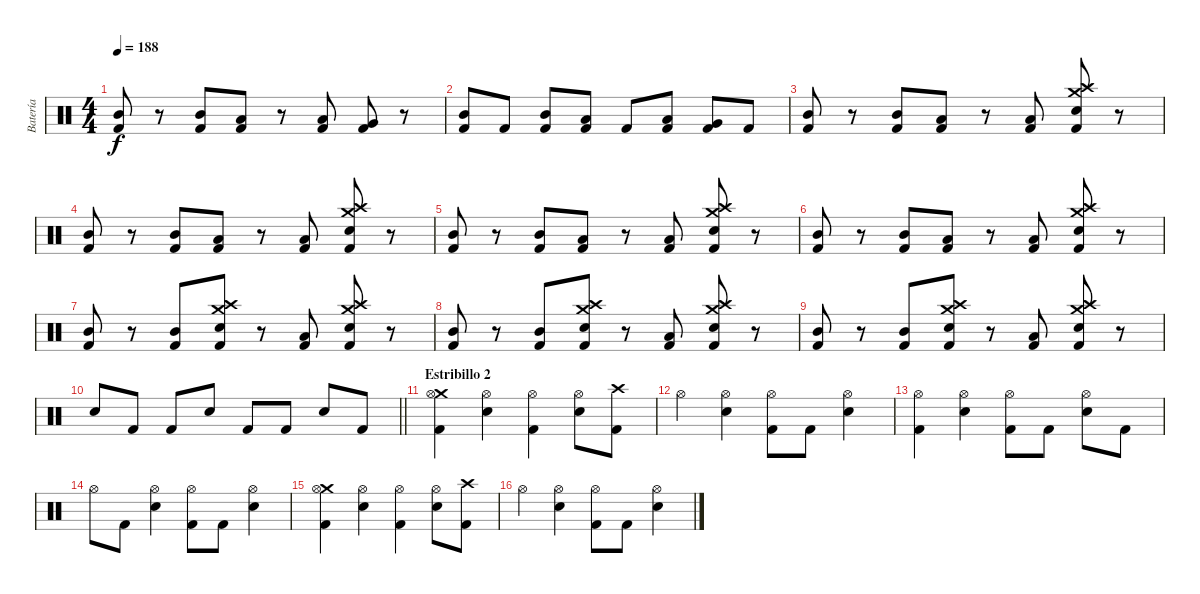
\track ("Batería" "Batería") {instrument percussion}
\staff {score}
\articulation defaults
\ts (4 4)
\tempo 188
\clef neutral
\ks c
("Mid Tom (hit)" "Kick (hit) 2").8{dy f} r.8 ("Mid Tom (hit)" "Kick (hit) 2").8 ("Low Tom (hit)" "Kick (hit) 2").8 r.8 ("Low Tom (hit)" "Kick (hit) 2").8 ("Very Low Tom (hit)" "Kick (hit) 2").8 r.8 |
("Mid Tom (hit)" "Kick (hit) 2").8 "Kick (hit) 2".8 ("Mid Tom (hit)" "Kick (hit) 2").8 ("Low Tom (hit)" "Kick (hit) 2").8 "Kick (hit) 2".8 ("Low Tom (hit)" "Kick (hit) 2").8 ("Very Low Tom (hit)" "Kick (hit) 2").8 "Kick (hit) 2".8 |
("Mid Tom (hit)" "Kick (hit) 2").8 r.8 ("Mid Tom (hit)" "Kick (hit) 2").8 ("Low Tom (hit)" "Kick (hit) 2").8 r.8 ("Low Tom (hit)" "Kick (hit) 2").8 ("Crash medium (hit)" "Crash high (hit)" "Electric Snare (hit)" "Kick (hit) 2").8 r.8 |
("Mid Tom (hit)" "Kick (hit) 2").8 r.8 ("Mid Tom (hit)" "Kick (hit) 2").8 ("Low Tom (hit)" "Kick (hit) 2").8 r.8 ("Low Tom (hit)" "Kick (hit) 2").8 ("Crash medium (hit)" "Crash high (hit)" "Electric Snare (hit)" "Kick (hit) 2").8 r.8 |
("Mid Tom (hit)" "Kick (hit) 2").8 r.8 ("Mid Tom (hit)" "Kick (hit) 2").8 ("Low Tom (hit)" "Kick (hit) 2").8 r.8 ("Low Tom (hit)" "Kick (hit) 2").8 ("Crash medium (hit)" "Crash high (hit)" "Electric Snare (hit)" "Kick (hit) 2").8 r.8 |
("Mid Tom (hit)" "Kick (hit) 2").8 r.8 ("Mid Tom (hit)" "Kick (hit) 2").8 ("Low Tom (hit)" "Kick (hit) 2").8 r.8 ("Low Tom (hit)" "Kick (hit) 2").8 ("Crash medium (hit)" "Crash high (hit)" "Electric Snare (hit)" "Kick (hit) 2").8 r.8 |
("Mid Tom (hit)" "Kick (hit) 2").8 r.8 ("Mid Tom (hit)" "Kick (hit) 2").8 ("Crash medium (hit)" "Crash high (hit)" "Electric Snare (hit)" "Kick (hit) 2").8 r.8 ("Low Tom (hit)" "Kick (hit) 2").8 ("Crash medium (hit)" "Crash high (hit)" "Electric Snare (hit)" "Kick (hit) 2").8 r.8 |
("Mid Tom (hit)" "Kick (hit) 2").8 r.8 ("Mid Tom (hit)" "Kick (hit) 2").8 ("Crash medium (hit)" "Crash high (hit)" "Electric Snare (hit)" "Kick (hit) 2").8 r.8 ("Low Tom (hit)" "Kick (hit) 2").8 ("Crash medium (hit)" "Crash high (hit)" "Electric Snare (hit)" "Kick (hit) 2").8 r.8 |
("Mid Tom (hit)" "Kick (hit) 2").8 r.8 ("Mid Tom (hit)" "Kick (hit) 2").8 ("Crash medium (hit)" "Crash high (hit)" "Electric Snare (hit)" "Kick (hit) 2").8 r.8 ("Low Tom (hit)" "Kick (hit) 2").8 ("Crash medium (hit)" "Crash high (hit)" "Electric Snare (hit)" "Kick (hit) 2").8 r.8 |
\barLineRight lightlight "Electric Snare (hit)".8 "Kick (hit) 2".8 "Kick (hit) 2".8 "Electric Snare (hit)".8 "Kick (hit) 2".8 "Kick (hit) 2".8 "Electric Snare (hit)".8 "Kick (hit) 2".8
|
\section ("" "Estribillo 2")
("Crash medium (hit)" "Hi-Hat (open)" "Kick (hit) 2").4 ("Hi-Hat (open)" "Electric Snare (hit)").4 ("Hi-Hat (open)" "Kick (hit) 2").4 ("Hi-Hat (open)" "Electric Snare (hit)").8 ("Crash high (hit)" "Kick (hit) 2").8 |
"Hi-Hat (open)".4 ("Hi-Hat (open)" "Electric Snare (hit)").4 ("Hi-Hat (open)" "Kick (hit) 2").8 "Kick (hit) 2".8 ("Hi-Hat (open)" "Electric Snare (hit)").4 |
("Hi-Hat (open)" "Kick (hit) 2").4 ("Hi-Hat (open)" "Electric Snare (hit)").4 ("Hi-Hat (open)" "Kick (hit) 2").8 "Kick (hit) 2".8 ("Hi-Hat (open)" "Electric Snare (hit)").8 "Kick (hit) 2".8 |
"Hi-Hat (open)".8 "Kick (hit) 2".8 ("Hi-Hat (open)" "Electric Snare (hit)").4 ("Hi-Hat (open)" "Kick (hit) 2").8 "Kick (hit) 2".8 ("Hi-Hat (open)" "Electric Snare (hit)").4 |
("Crash medium (hit)" "Hi-Hat (open)" "Kick (hit) 2").4 ("Hi-Hat (open)" "Electric Snare (hit)").4 ("Hi-Hat (open)" "Kick (hit) 2").4 ("Hi-Hat (open)" "Electric Snare (hit)").8 ("Crash high (hit)" "Kick (hit) 2").8 |
"Hi-Hat (open)".4 ("Hi-Hat (open)" "Electric Snare (hit)").4 ("Hi-Hat (open)" "Kick (hit) 2").8 "Kick (hit) 2".8 ("Hi-Hat (open)" "Electric Snare (hit)").4
